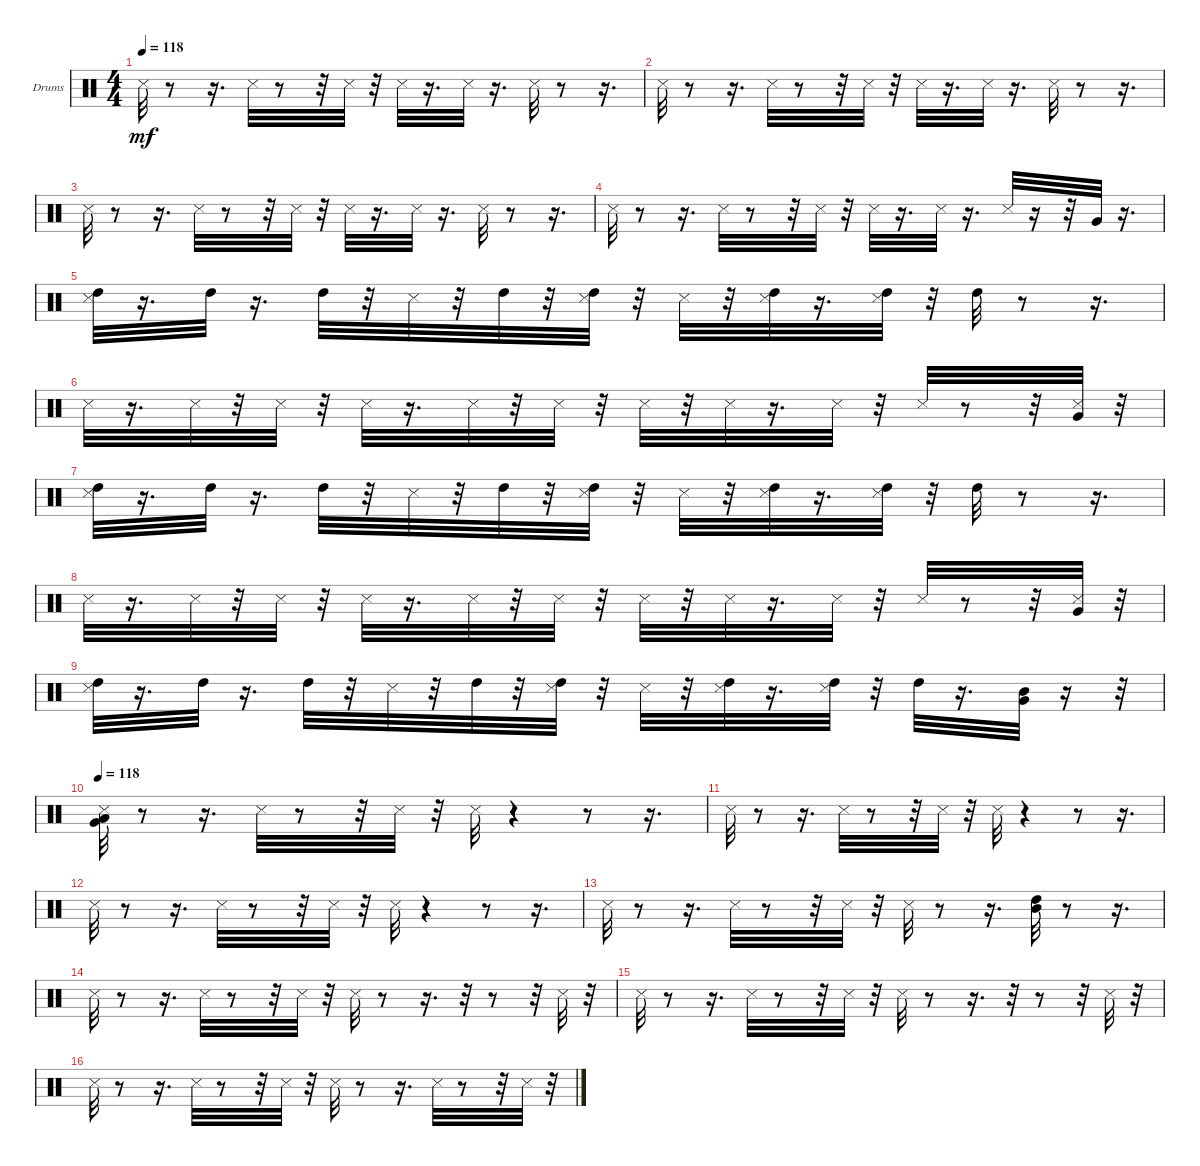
\bracketExtendMode groupsimilarinstruments
\firstSystemTrackNameOrientation horizontal
\otherSystemsTrackNameOrientation horizontal
\track ("Drums" "Drums") {instrument percussion}
\staff {score}
\articulation defaults
\ts (4 4)
\tempo 118
\clef neutral
\ks c "Snare (side stick) 3".32{dy mf}
r.8 r.16{d} "Snare (side stick) 3".32 r.8 r.32 "Snare (side stick) 3".32 r.32 "Snare (side stick) 3".32 r.16{d} "Snare (side stick) 3".32 r.16{d} "Snare (side stick) 3".32 r.8 r.16{d} |
"Snare (side stick) 3".32 r.8 r.16{d} "Snare (side stick) 3".32 r.8 r.32 "Snare (side stick) 3".32 r.32 "Snare (side stick) 3".32 r.16{d} "Snare (side stick) 3".32 r.16{d} "Snare (side stick) 3".32 r.8 r.16{d} |
"Snare (side stick) 3".32 r.8 r.16{d} "Snare (side stick) 3".32 r.8 r.32 "Snare (side stick) 3".32 r.32 "Snare (side stick) 3".32 r.16{d} "Snare (side stick) 3".32 r.16{d} "Snare (side stick) 3".32 r.8 r.16{d} |
"Snare (side stick) 3".32 r.8 r.16{d} "Snare (side stick) 3".32 r.8 r.32 "Snare (side stick) 3".32 r.32 "Snare (side stick) 3".32 r.16{d} "Snare (side stick) 3".32 r.16{d} "Snare (side stick) 3".32 r.16 r.32 "Very Low Tom (hit)".32 r.16{d} |
("Snare (side stick) 3" "High Tom (hit)").32 r.16{d} "High Tom (hit)".32 r.16{d} "High Tom (hit)".32 r.32 "Snare (side stick) 3".32 r.32 "High Tom (hit)".32 r.32 ("Snare (side stick) 3" "High Tom (hit)").32 r.32 "Snare (side stick) 3".32 r.32 ("Snare (side stick) 3" "High Tom (hit)").32 r.16{d} ("Snare (side stick) 3" "High Tom (hit)").32 r.32 "High Tom (hit)".32 r.8 r.16{d} |
"Snare (side stick) 3".32 r.16{d} "Snare (side stick) 3".32 r.32 "Snare (side stick) 3".32 r.32 "Snare (side stick) 3".32 r.16{d} "Snare (side stick) 3".32 r.32 "Snare (side stick) 3".32 r.32 "Snare (side stick) 3".32 r.32 "Snare (side stick) 3".32 r.16{d} "Snare (side stick) 3".32 r.32 "Snare (side stick) 3".32 r.8 r.32 ("Very Low Tom (hit)" "Snare (side stick) 3").32 r.32 |
("Snare (side stick) 3" "High Tom (hit)").32 r.16{d} "High Tom (hit)".32 r.16{d} "High Tom (hit)".32 r.32 "Snare (side stick) 3".32 r.32 "High Tom (hit)".32 r.32 ("Snare (side stick) 3" "High Tom (hit)").32 r.32 "Snare (side stick) 3".32 r.32 ("Snare (side stick) 3" "High Tom (hit)").32 r.16{d} ("Snare (side stick) 3" "High Tom (hit)").32 r.32 "High Tom (hit)".32 r.8 r.16{d} |
"Snare (side stick) 3".32 r.16{d} "Snare (side stick) 3".32 r.32 "Snare (side stick) 3".32 r.32 "Snare (side stick) 3".32 r.16{d} "Snare (side stick) 3".32 r.32 "Snare (side stick) 3".32 r.32 "Snare (side stick) 3".32 r.32 "Snare (side stick) 3".32 r.16{d} "Snare (side stick) 3".32 r.32 "Snare (side stick) 3".32 r.8 r.32 ("Very Low Tom (hit)" "Snare (side stick) 3").32 r.32 |
("Snare (side stick) 3" "High Tom (hit)").32 r.16{d} "High Tom (hit)".32 r.16{d} "High Tom (hit)".32 r.32 "Snare (side stick) 3".32 r.32 "High Tom (hit)".32 r.32 ("High Tom (hit)" "Snare (side stick) 3").32 r.32 "Snare (side stick) 3".32 r.32 ("Snare (side stick) 3" "High Tom (hit)").32 r.16{d} ("Snare (side stick) 3" "High Tom (hit)").32 r.32 "High Tom (hit)".32 r.16{d} ("Mid Tom (hit)" "Very Low Tom (hit)").32 r.16 r.32 |
\tempo 118
("Low Tom (hit)" "Very Low Tom (hit)" "Snare (side stick) 3").32 r.8 r.16{d} "Snare (side stick) 3".32 r.8 r.32 "Snare (side stick) 3".32 r.32 "Snare (side stick) 3".32 r.4 r.8 r.16{d} |
"Snare (side stick) 3".32 r.8 r.16{d} "Snare (side stick) 3".32 r.8 r.32 "Snare (side stick) 3".32 r.32 "Snare (side stick) 3".32 r.4 r.8 r.16{d} |
"Snare (side stick) 3".32 r.8 r.16{d} "Snare (side stick) 3".32 r.8 r.32 "Snare (side stick) 3".32 r.32 "Snare (side stick) 3".32 r.4 r.8 r.16{d} |
"Snare (side stick) 3".32 r.8 r.16{d} "Snare (side stick) 3".32 r.8 r.32 "Snare (side stick) 3".32 r.32 "Snare (side stick) 3".32 r.8 r.16{d} ("High Tom (hit)" "Mid Tom (hit)").32 r.8 r.16{d} |
"Snare (side stick) 3".32 r.8 r.16{d} "Snare (side stick) 3".32 r.8 r.32 "Snare (side stick) 3".32 r.32 "Snare (side stick) 3".32 r.8 r.16{d} r.32 r.8 r.32 "Snare (side stick) 3".32 r.32 |
"Snare (side stick) 3".32 r.8 r.16{d} "Snare (side stick) 3".32 r.8 r.32 "Snare (side stick) 3".32 r.32 "Snare (side stick) 3".32 r.8 r.16{d} r.32 r.8 r.32 "Snare (side stick) 3".32 r.32 |
"Snare (side stick) 3".32 r.8 r.16{d} "Snare (side stick) 3".32 r.8 r.32 "Snare (side stick) 3".32 r.32 "Snare (side stick) 3".32 r.8 r.16{d} "Snare (side stick) 3".32 r.8 r.32 "Snare (side stick) 3".32 r.32
